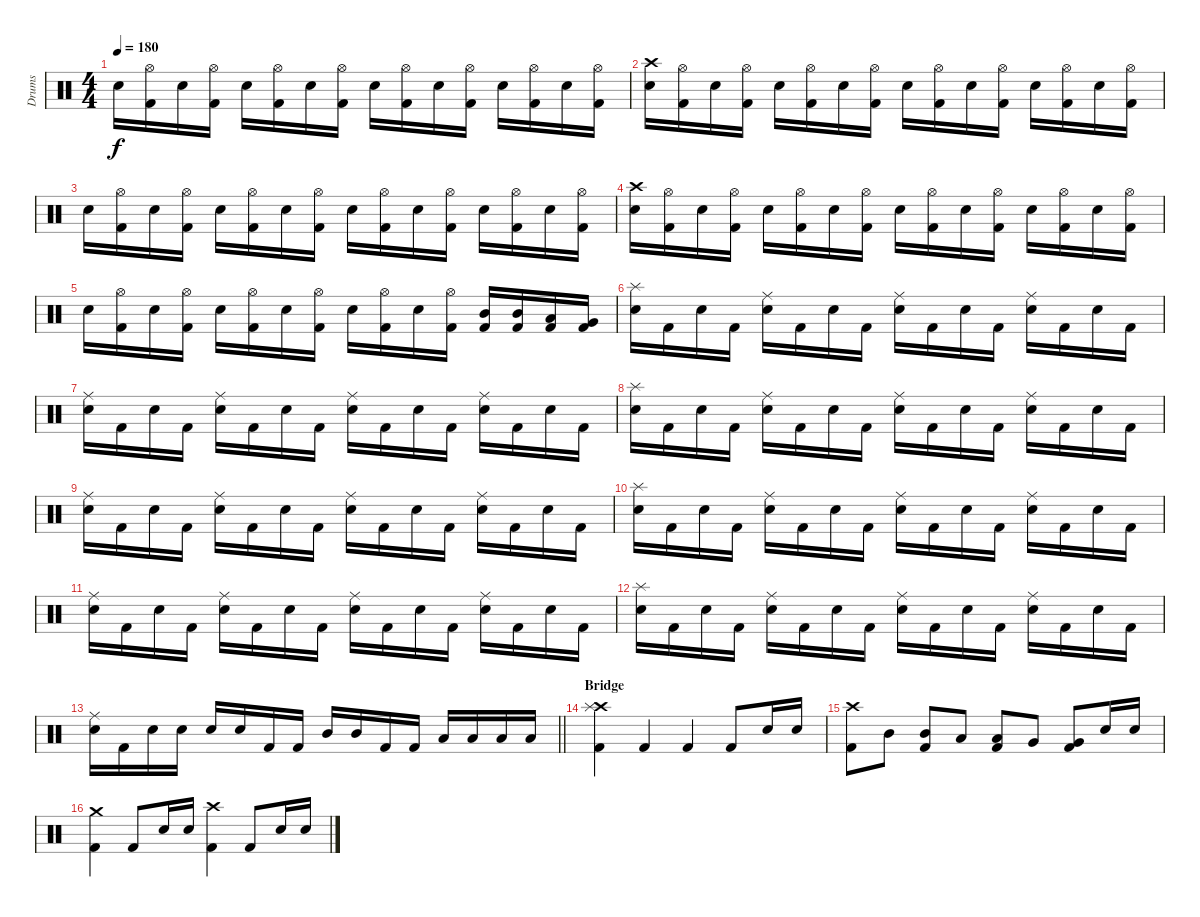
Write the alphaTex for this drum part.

\track ("Drums" "Drums") {instrument percussion}
\staff {score}
\articulation defaults
\ts (4 4)
\tempo 180
\clef neutral
\ks c "Electric Snare (hit)".16{dy f}
("Hi-Hat (open)" "Kick (hit) 2").16 "Electric Snare (hit)".16 ("Hi-Hat (open)" "Kick (hit) 2").16 "Electric Snare (hit)".16 ("Hi-Hat (open)" "Kick (hit) 2").16 "Electric Snare (hit)".16 ("Hi-Hat (open)" "Kick (hit) 2").16 "Electric Snare (hit)".16 ("Hi-Hat (open)" "Kick (hit) 2").16 "Electric Snare (hit)".16 ("Hi-Hat (open)" "Kick (hit) 2").16 "Electric Snare (hit)".16 ("Hi-Hat (open)" "Kick (hit) 2").16 "Electric Snare (hit)".16 ("Hi-Hat (open)" "Kick (hit) 2").16 |
("Crash high (hit)" "Electric Snare (hit)").16 ("Hi-Hat (open)" "Kick (hit) 2").16 "Electric Snare (hit)".16 ("Hi-Hat (open)" "Kick (hit) 2").16 "Electric Snare (hit)".16 ("Hi-Hat (open)" "Kick (hit) 2").16 "Electric Snare (hit)".16 ("Hi-Hat (open)" "Kick (hit) 2").16 "Electric Snare (hit)".16 ("Hi-Hat (open)" "Kick (hit) 2").16 "Electric Snare (hit)".16 ("Hi-Hat (open)" "Kick (hit) 2").16 "Electric Snare (hit)".16 ("Hi-Hat (open)" "Kick (hit) 2").16 "Electric Snare (hit)".16 ("Hi-Hat (open)" "Kick (hit) 2").16 |
"Electric Snare (hit)".16 ("Hi-Hat (open)" "Kick (hit) 2").16 "Electric Snare (hit)".16 ("Hi-Hat (open)" "Kick (hit) 2").16 "Electric Snare (hit)".16 ("Hi-Hat (open)" "Kick (hit) 2").16 "Electric Snare (hit)".16 ("Hi-Hat (open)" "Kick (hit) 2").16 "Electric Snare (hit)".16 ("Hi-Hat (open)" "Kick (hit) 2").16 "Electric Snare (hit)".16 ("Hi-Hat (open)" "Kick (hit) 2").16 "Electric Snare (hit)".16 ("Hi-Hat (open)" "Kick (hit) 2").16 "Electric Snare (hit)".16 ("Hi-Hat (open)" "Kick (hit) 2").16 |
("Crash high (hit)" "Electric Snare (hit)").16 ("Hi-Hat (open)" "Kick (hit) 2").16 "Electric Snare (hit)".16 ("Hi-Hat (open)" "Kick (hit) 2").16 "Electric Snare (hit)".16 ("Hi-Hat (open)" "Kick (hit) 2").16 "Electric Snare (hit)".16 ("Hi-Hat (open)" "Kick (hit) 2").16 "Electric Snare (hit)".16 ("Hi-Hat (open)" "Kick (hit) 2").16 "Electric Snare (hit)".16 ("Hi-Hat (open)" "Kick (hit) 2").16 "Electric Snare (hit)".16 ("Hi-Hat (open)" "Kick (hit) 2").16 "Electric Snare (hit)".16 ("Hi-Hat (open)" "Kick (hit) 2").16 |
"Electric Snare (hit)".16 ("Hi-Hat (open)" "Kick (hit) 2").16 "Electric Snare (hit)".16 ("Hi-Hat (open)" "Kick (hit) 2").16 "Electric Snare (hit)".16 ("Hi-Hat (open)" "Kick (hit) 2").16 "Electric Snare (hit)".16 ("Hi-Hat (open)" "Kick (hit) 2").16 "Electric Snare (hit)".16 ("Hi-Hat (open)" "Kick (hit) 2").16 "Electric Snare (hit)".16 ("Hi-Hat (open)" "Kick (hit) 2").16 ("Mid Tom (hit)" "Kick (hit) 2").16 ("Mid Tom (hit)" "Kick (hit) 2").16 ("Low Tom (hit)" "Kick (hit) 2").16 ("Very Low Tom (hit)" "Kick (hit) 2").16 |
("Splash (hit)" "Electric Snare (hit)").16 "Kick (hit) 2".16 "Electric Snare (hit)".16 "Kick (hit) 2".16 ("Ride (middle)" "Electric Snare (hit)").16 "Kick (hit) 2".16 "Electric Snare (hit)".16 "Kick (hit) 2".16 ("Ride (middle)" "Electric Snare (hit)").16 "Kick (hit) 2".16 "Electric Snare (hit)".16 "Kick (hit) 2".16 ("Ride (middle)" "Electric Snare (hit)").16 "Kick (hit) 2".16 "Electric Snare (hit)".16 "Kick (hit) 2".16 |
("Ride (middle)" "Electric Snare (hit)").16 "Kick (hit) 2".16 "Electric Snare (hit)".16 "Kick (hit) 2".16 ("Ride (middle)" "Electric Snare (hit)").16 "Kick (hit) 2".16 "Electric Snare (hit)".16 "Kick (hit) 2".16 ("Ride (middle)" "Electric Snare (hit)").16 "Kick (hit) 2".16 "Electric Snare (hit)".16 "Kick (hit) 2".16 ("Ride (middle)" "Electric Snare (hit)").16 "Kick (hit) 2".16 "Electric Snare (hit)".16 "Kick (hit) 2".16 |
("Splash (hit)" "Electric Snare (hit)").16 "Kick (hit) 2".16 "Electric Snare (hit)".16 "Kick (hit) 2".16 ("Ride (middle)" "Electric Snare (hit)").16 "Kick (hit) 2".16 "Electric Snare (hit)".16 "Kick (hit) 2".16 ("Ride (middle)" "Electric Snare (hit)").16 "Kick (hit) 2".16 "Electric Snare (hit)".16 "Kick (hit) 2".16 ("Ride (middle)" "Electric Snare (hit)").16 "Kick (hit) 2".16 "Electric Snare (hit)".16 "Kick (hit) 2".16 |
("Ride (middle)" "Electric Snare (hit)").16 "Kick (hit) 2".16 "Electric Snare (hit)".16 "Kick (hit) 2".16 ("Ride (middle)" "Electric Snare (hit)").16 "Kick (hit) 2".16 "Electric Snare (hit)".16 "Kick (hit) 2".16 ("Ride (middle)" "Electric Snare (hit)").16 "Kick (hit) 2".16 "Electric Snare (hit)".16 "Kick (hit) 2".16 ("Ride (middle)" "Electric Snare (hit)").16 "Kick (hit) 2".16 "Electric Snare (hit)".16 "Kick (hit) 2".16 |
("Splash (hit)" "Electric Snare (hit)").16 "Kick (hit) 2".16 "Electric Snare (hit)".16 "Kick (hit) 2".16 ("Ride (middle)" "Electric Snare (hit)").16 "Kick (hit) 2".16 "Electric Snare (hit)".16 "Kick (hit) 2".16 ("Ride (middle)" "Electric Snare (hit)").16 "Kick (hit) 2".16 "Electric Snare (hit)".16 "Kick (hit) 2".16 ("Ride (middle)" "Electric Snare (hit)").16 "Kick (hit) 2".16 "Electric Snare (hit)".16 "Kick (hit) 2".16 |
("Ride (middle)" "Electric Snare (hit)").16 "Kick (hit) 2".16 "Electric Snare (hit)".16 "Kick (hit) 2".16 ("Ride (middle)" "Electric Snare (hit)").16 "Kick (hit) 2".16 "Electric Snare (hit)".16 "Kick (hit) 2".16 ("Ride (middle)" "Electric Snare (hit)").16 "Kick (hit) 2".16 "Electric Snare (hit)".16 "Kick (hit) 2".16 ("Ride (middle)" "Electric Snare (hit)").16 "Kick (hit) 2".16 "Electric Snare (hit)".16 "Kick (hit) 2".16 |
("Splash (hit)" "Electric Snare (hit)").16 "Kick (hit) 2".16 "Electric Snare (hit)".16 "Kick (hit) 2".16 ("Ride (middle)" "Electric Snare (hit)").16 "Kick (hit) 2".16 "Electric Snare (hit)".16 "Kick (hit) 2".16 ("Ride (middle)" "Electric Snare (hit)").16 "Kick (hit) 2".16 "Electric Snare (hit)".16 "Kick (hit) 2".16 ("Ride (middle)" "Electric Snare (hit)").16 "Kick (hit) 2".16 "Electric Snare (hit)".16 "Kick (hit) 2".16 |
\barLineRight lightlight
("Ride (middle)" "Electric Snare (hit)").16 "Kick (hit) 2".16 "Electric Snare (hit)".16 "Electric Snare (hit)".16 "Electric Snare (hit)".16 "Electric Snare (hit)".16 "Kick (hit) 2".16 "Kick (hit) 2".16 "Mid Tom (hit)".16 "Mid Tom (hit)".16 "Kick (hit) 2".16 "Kick (hit) 2".16 "Low Tom (hit)".16 "Low Tom (hit)".16 "Low Tom (hit)".16 "Low Tom (hit)".16 |
\section ("" "Bridge")
("Crash high (hit)" "Splash (hit)" "Kick (hit) 2").4 "Kick (hit) 2".4 "Kick (hit) 2".4 "Kick (hit) 2".8 "Electric Snare (hit)".16 "Electric Snare (hit)".16 |
("Crash high (hit)" "Kick (hit) 2").8 "Mid Tom (hit)".8 ("Mid Tom (hit)" "Kick (hit) 2").8 "Low Tom (hit)".8 ("Low Tom (hit)" "Kick (hit) 2").8 "Very Low Tom (hit)".8 ("Very Low Tom (hit)" "Kick (hit) 2").8 "Electric Snare (hit)".16 "Electric Snare (hit)".16 |
("Crash medium (hit)" "Kick (hit) 2").4 "Kick (hit) 2".8 "Electric Snare (hit)".16 "Electric Snare (hit)".16 ("Crash high (hit)" "Kick (hit) 2").4 "Kick (hit) 2".8 "Electric Snare (hit)".16 "Electric Snare (hit)".16
